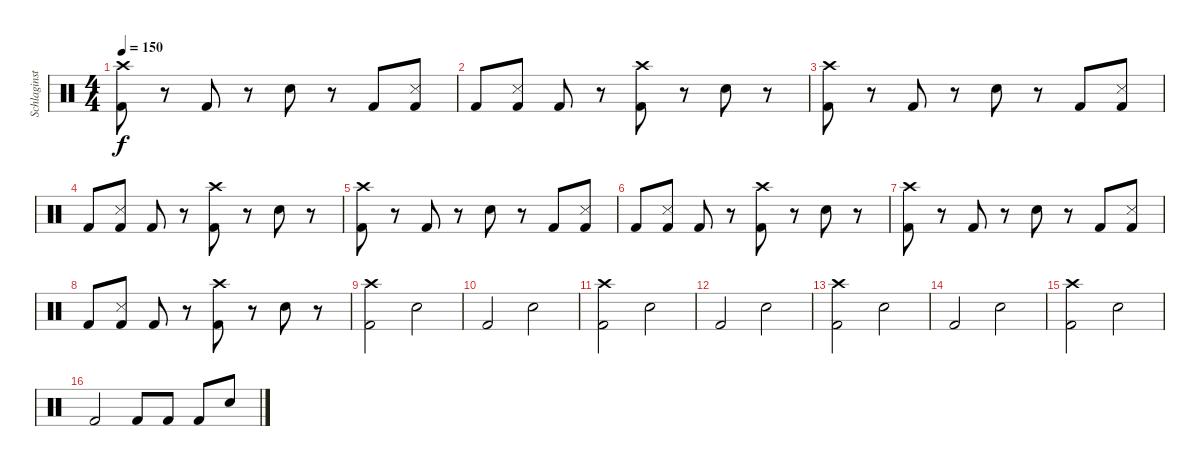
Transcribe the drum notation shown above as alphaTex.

\track ("Schlaginstrumente - Auswahl" "Schlaginst") {instrument percussion}
\staff {score}
\articulation defaults
\ts (4 4)
\tempo 150
\clef neutral
\ks c
("Kick (hit) 2" "Crash high (hit)").8{dy f} r.8 "Kick (hit) 2".8 r.8 "Snare (hit) 2".8 r.8 "Kick (hit) 2".8 ("Metronome (hit)" "Kick (hit) 2").8 |
"Kick (hit) 2".8 ("Metronome (hit)" "Kick (hit) 2").8 "Kick (hit) 2".8 r.8 ("Kick (hit) 2" "Crash high (hit)").8 r.8 "Snare (hit) 2".8 r.8 |
("Kick (hit) 2" "Crash high (hit)").8 r.8 "Kick (hit) 2".8 r.8 "Snare (hit) 2".8 r.8 "Kick (hit) 2".8 ("Metronome (hit)" "Kick (hit) 2").8 |
"Kick (hit) 2".8 ("Metronome (hit)" "Kick (hit) 2").8 "Kick (hit) 2".8 r.8 ("Kick (hit) 2" "Crash high (hit)").8 r.8 "Snare (hit) 2".8 r.8 |
("Kick (hit) 2" "Crash high (hit)").8 r.8 "Kick (hit) 2".8 r.8 "Snare (hit) 2".8 r.8 "Kick (hit) 2".8 ("Metronome (hit)" "Kick (hit) 2").8 |
"Kick (hit) 2".8 ("Metronome (hit)" "Kick (hit) 2").8 "Kick (hit) 2".8 r.8 ("Kick (hit) 2" "Crash high (hit)").8 r.8 "Snare (hit) 2".8 r.8 |
("Kick (hit) 2" "Crash high (hit)").8 r.8 "Kick (hit) 2".8 r.8 "Snare (hit) 2".8 r.8 "Kick (hit) 2".8 ("Metronome (hit)" "Kick (hit) 2").8 |
"Kick (hit) 2".8 ("Metronome (hit)" "Kick (hit) 2").8 "Kick (hit) 2".8 r.8 ("Kick (hit) 2" "Crash high (hit)").8 r.8 "Snare (hit) 2".8 r.8 |
("Crash high (hit)" "Kick (hit) 2").2 "Snare (hit) 2".2 |
"Kick (hit) 2".2 "Snare (hit) 2".2 |
("Crash high (hit)" "Kick (hit) 2").2 "Snare (hit) 2".2 |
"Kick (hit) 2".2 "Snare (hit) 2".2 |
("Crash high (hit)" "Kick (hit) 2").2 "Snare (hit) 2".2 |
"Kick (hit) 2".2 "Snare (hit) 2".2 |
("Crash high (hit)" "Kick (hit) 2").2 "Snare (hit) 2".2 |
"Kick (hit) 2".2 "Kick (hit) 2".8 "Kick (hit) 2".8 "Kick (hit) 2".8 "Snare (hit) 2".8
